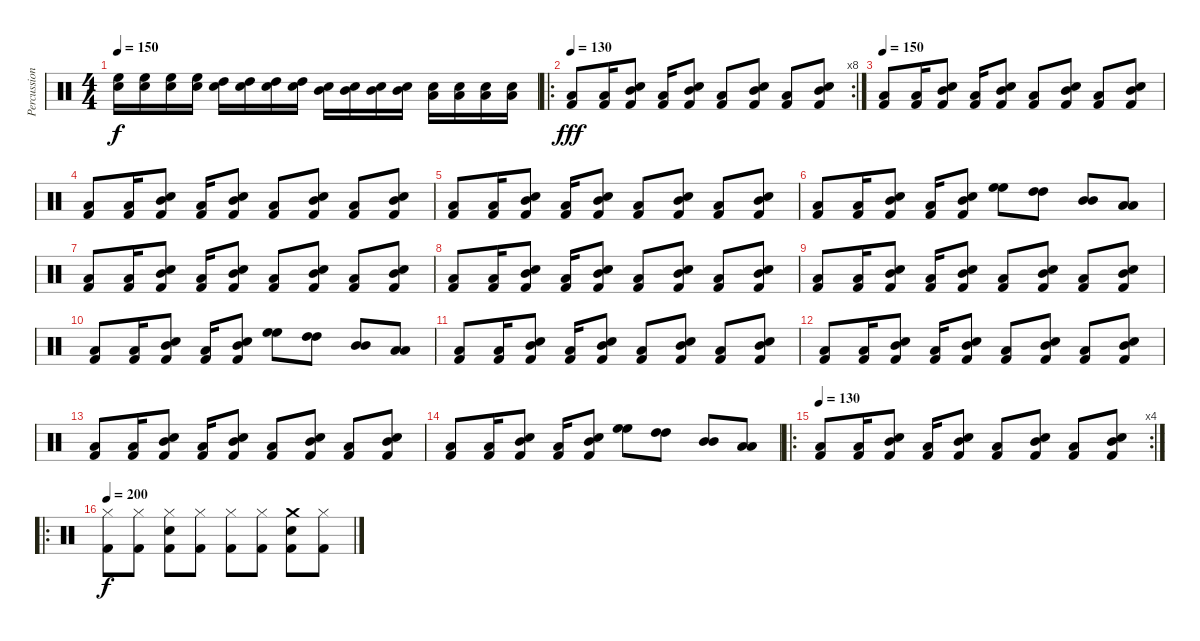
\track ("Percussion" "Percussion") {instrument percussion}
\staff {score}
\articulation defaults
\ts (4 4)
\tempo 150
\clef neutral
\ks c
("Snare (hit) 2" "High Floor Tom (hit)").16{dy f} ("Snare (hit) 2" "High Floor Tom (hit)").16 ("Snare (hit) 2" "High Floor Tom (hit)").16 ("Snare (hit) 2" "High Floor Tom (hit)").16 ("Snare (hit) 2" "High Tom (hit)").16 ("Snare (hit) 2" "High Tom (hit)").16 ("Snare (hit) 2" "High Tom (hit)").16 ("Snare (hit) 2" "High Tom (hit)").16 ("Snare (hit) 2" "Mid Tom (hit)").16 ("Snare (hit) 2" "Mid Tom (hit)").16 ("Snare (hit) 2" "Mid Tom (hit)").16 ("Snare (hit) 2" "Mid Tom (hit)").16 ("Snare (hit) 2" "Low Tom (hit)").16 ("Snare (hit) 2" "Low Tom (hit)").16 ("Snare (hit) 2" "Low Tom (hit)").16 ("Snare (hit) 2" "Low Tom (hit)").16 |
\ro
\rc 8
\tempo 130
("Kick (hit) 2" "Low Tom (hit)").8{dy fff} ("Kick (hit) 2" "Low Tom (hit)").16 ("Snare (hit) 2" "Kick (hit) 2" "Mid Tom (hit)").8 ("Kick (hit) 2" "Low Tom (hit)").16 ("Snare (hit) 2" "Kick (hit) 2" "Mid Tom (hit)").8 ("Kick (hit) 2" "Low Tom (hit)").8 ("Snare (hit) 2" "Kick (hit) 2" "Mid Tom (hit)").8 ("Kick (hit) 2" "Low Tom (hit)").8 ("Snare (hit) 2" "Kick (hit) 2" "Mid Tom (hit)").8 |
\tempo 150
("Kick (hit) 2" "Low Tom (hit)").8 ("Kick (hit) 2" "Low Tom (hit)").16 ("Snare (hit) 2" "Kick (hit) 2" "Mid Tom (hit)").8 ("Kick (hit) 2" "Low Tom (hit)").16 ("Snare (hit) 2" "Kick (hit) 2" "Mid Tom (hit)").8 ("Kick (hit) 2" "Low Tom (hit)").8 ("Snare (hit) 2" "Kick (hit) 2" "Mid Tom (hit)").8 ("Kick (hit) 2" "Low Tom (hit)").8 ("Snare (hit) 2" "Kick (hit) 2" "Mid Tom (hit)").8 |
("Kick (hit) 2" "Low Tom (hit)").8 ("Kick (hit) 2" "Low Tom (hit)").16 ("Snare (hit) 2" "Kick (hit) 2" "Mid Tom (hit)").8 ("Kick (hit) 2" "Low Tom (hit)").16 ("Snare (hit) 2" "Kick (hit) 2" "Mid Tom (hit)").8 ("Kick (hit) 2" "Low Tom (hit)").8 ("Snare (hit) 2" "Kick (hit) 2" "Mid Tom (hit)").8 ("Kick (hit) 2" "Low Tom (hit)").8 ("Snare (hit) 2" "Kick (hit) 2" "Mid Tom (hit)").8 |
("Kick (hit) 2" "Low Tom (hit)").8 ("Kick (hit) 2" "Low Tom (hit)").16 ("Snare (hit) 2" "Kick (hit) 2" "Mid Tom (hit)").8 ("Kick (hit) 2" "Low Tom (hit)").16 ("Snare (hit) 2" "Kick (hit) 2" "Mid Tom (hit)").8 ("Kick (hit) 2" "Low Tom (hit)").8 ("Snare (hit) 2" "Kick (hit) 2" "Mid Tom (hit)").8 ("Kick (hit) 2" "Low Tom (hit)").8 ("Snare (hit) 2" "Kick (hit) 2" "Mid Tom (hit)").8 |
("Kick (hit) 2" "Low Tom (hit)").8 ("Kick (hit) 2" "Low Tom (hit)").16 ("Snare (hit) 2" "Kick (hit) 2" "Mid Tom (hit)").8 ("Kick (hit) 2" "Low Tom (hit)").16 ("Snare (hit) 2" "Kick (hit) 2" "Mid Tom (hit)").8 ("High Floor Tom (hit)" "High Floor Tom (hit)").8 ("High Tom (hit)" "High Tom (hit)").8 ("Mid Tom (hit)" "Mid Tom (hit)").8 ("Low Tom (hit)" "Low Tom (hit)").8 |
("Kick (hit) 2" "Low Tom (hit)").8 ("Kick (hit) 2" "Low Tom (hit)").16 ("Snare (hit) 2" "Kick (hit) 2" "Mid Tom (hit)").8 ("Kick (hit) 2" "Low Tom (hit)").16 ("Snare (hit) 2" "Kick (hit) 2" "Mid Tom (hit)").8 ("Kick (hit) 2" "Low Tom (hit)").8 ("Snare (hit) 2" "Kick (hit) 2" "Mid Tom (hit)").8 ("Kick (hit) 2" "Low Tom (hit)").8 ("Snare (hit) 2" "Kick (hit) 2" "Mid Tom (hit)").8 |
("Kick (hit) 2" "Low Tom (hit)").8 ("Kick (hit) 2" "Low Tom (hit)").16 ("Snare (hit) 2" "Kick (hit) 2" "Mid Tom (hit)").8 ("Kick (hit) 2" "Low Tom (hit)").16 ("Snare (hit) 2" "Kick (hit) 2" "Mid Tom (hit)").8 ("Kick (hit) 2" "Low Tom (hit)").8 ("Snare (hit) 2" "Kick (hit) 2" "Mid Tom (hit)").8 ("Kick (hit) 2" "Low Tom (hit)").8 ("Snare (hit) 2" "Kick (hit) 2" "Mid Tom (hit)").8 |
("Kick (hit) 2" "Low Tom (hit)").8 ("Kick (hit) 2" "Low Tom (hit)").16 ("Snare (hit) 2" "Kick (hit) 2" "Mid Tom (hit)").8 ("Kick (hit) 2" "Low Tom (hit)").16 ("Snare (hit) 2" "Kick (hit) 2" "Mid Tom (hit)").8 ("Kick (hit) 2" "Low Tom (hit)").8 ("Snare (hit) 2" "Kick (hit) 2" "Mid Tom (hit)").8 ("Kick (hit) 2" "Low Tom (hit)").8 ("Snare (hit) 2" "Kick (hit) 2" "Mid Tom (hit)").8 |
("Kick (hit) 2" "Low Tom (hit)").8 ("Kick (hit) 2" "Low Tom (hit)").16 ("Snare (hit) 2" "Kick (hit) 2" "Mid Tom (hit)").8 ("Kick (hit) 2" "Low Tom (hit)").16 ("Snare (hit) 2" "Kick (hit) 2" "Mid Tom (hit)").8 ("High Floor Tom (hit)" "High Floor Tom (hit)").8 ("High Tom (hit)" "High Tom (hit)").8 ("Mid Tom (hit)" "Mid Tom (hit)").8 ("Low Tom (hit)" "Low Tom (hit)").8 |
("Kick (hit) 2" "Low Tom (hit)").8 ("Kick (hit) 2" "Low Tom (hit)").16 ("Snare (hit) 2" "Kick (hit) 2" "Mid Tom (hit)").8 ("Kick (hit) 2" "Low Tom (hit)").16 ("Snare (hit) 2" "Kick (hit) 2" "Mid Tom (hit)").8 ("Kick (hit) 2" "Low Tom (hit)").8 ("Snare (hit) 2" "Kick (hit) 2" "Mid Tom (hit)").8 ("Kick (hit) 2" "Low Tom (hit)").8 ("Snare (hit) 2" "Kick (hit) 2" "Mid Tom (hit)").8 |
("Kick (hit) 2" "Low Tom (hit)").8 ("Kick (hit) 2" "Low Tom (hit)").16 ("Snare (hit) 2" "Kick (hit) 2" "Mid Tom (hit)").8 ("Kick (hit) 2" "Low Tom (hit)").16 ("Snare (hit) 2" "Kick (hit) 2" "Mid Tom (hit)").8 ("Kick (hit) 2" "Low Tom (hit)").8 ("Snare (hit) 2" "Kick (hit) 2" "Mid Tom (hit)").8 ("Kick (hit) 2" "Low Tom (hit)").8 ("Snare (hit) 2" "Kick (hit) 2" "Mid Tom (hit)").8 |
("Kick (hit) 2" "Low Tom (hit)").8 ("Kick (hit) 2" "Low Tom (hit)").16 ("Snare (hit) 2" "Kick (hit) 2" "Mid Tom (hit)").8 ("Kick (hit) 2" "Low Tom (hit)").16 ("Snare (hit) 2" "Kick (hit) 2" "Mid Tom (hit)").8 ("Kick (hit) 2" "Low Tom (hit)").8 ("Snare (hit) 2" "Kick (hit) 2" "Mid Tom (hit)").8 ("Kick (hit) 2" "Low Tom (hit)").8 ("Snare (hit) 2" "Kick (hit) 2" "Mid Tom (hit)").8 |
("Kick (hit) 2" "Low Tom (hit)").8 ("Kick (hit) 2" "Low Tom (hit)").16 ("Snare (hit) 2" "Kick (hit) 2" "Mid Tom (hit)").8 ("Kick (hit) 2" "Low Tom (hit)").16 ("Snare (hit) 2" "Kick (hit) 2" "Mid Tom (hit)").8 ("High Floor Tom (hit)" "High Floor Tom (hit)").8 ("High Tom (hit)" "High Tom (hit)").8 ("Mid Tom (hit)" "Mid Tom (hit)").8 ("Low Tom (hit)" "Low Tom (hit)").8 |
\ro
\rc 4
\tempo 130
("Kick (hit) 2" "Low Tom (hit)").8 ("Kick (hit) 2" "Low Tom (hit)").16 ("Snare (hit) 2" "Kick (hit) 2" "Mid Tom (hit)").8 ("Kick (hit) 2" "Low Tom (hit)").16 ("Snare (hit) 2" "Kick (hit) 2" "Mid Tom (hit)").8 ("Kick (hit) 2" "Low Tom (hit)").8 ("Snare (hit) 2" "Kick (hit) 2" "Mid Tom (hit)").8 ("Kick (hit) 2" "Low Tom (hit)").8 ("Snare (hit) 2" "Kick (hit) 2" "Mid Tom (hit)").8 |
\ro
\tempo 200
("Hi-Hat (closed)" "Kick (hit) 2").8{dy f} ("Hi-Hat (closed)" "Kick (hit) 2").8 ("Hi-Hat (closed)" "Snare (hit) 2" "Kick (hit) 2").8 ("Hi-Hat (closed)" "Kick (hit) 2").8 ("Hi-Hat (closed)" "Kick (hit) 2").8 ("Hi-Hat (closed)" "Kick (hit) 2").8 ("Crash medium (hit)" "Snare (hit) 2" "Kick (hit) 2").8 ("Hi-Hat (closed)" "Kick (hit) 2").8
